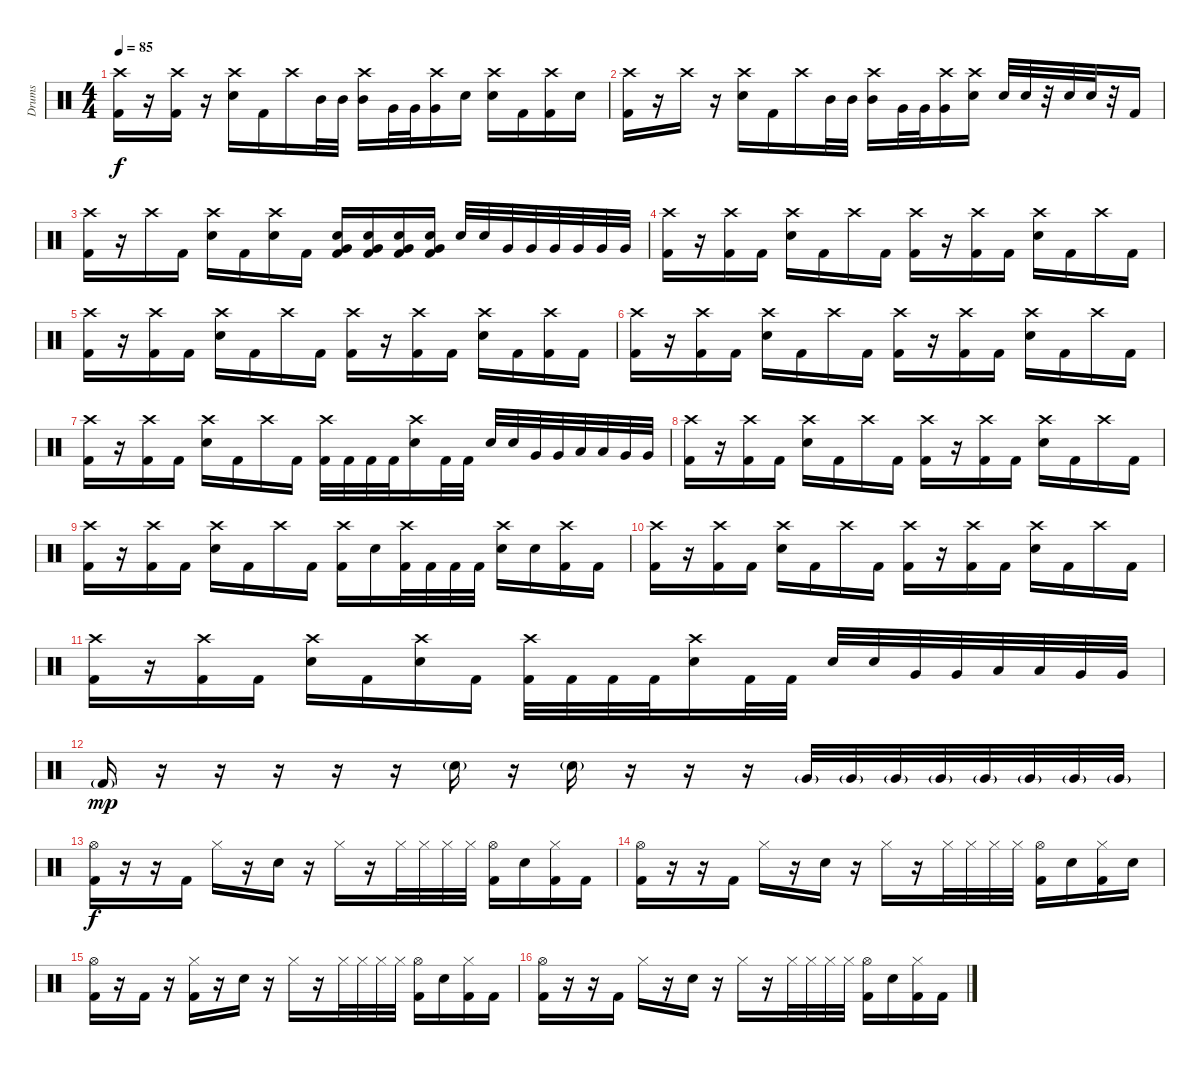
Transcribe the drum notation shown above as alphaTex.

\track ("Drums" "Drums") {instrument percussion}
\staff {score}
\articulation defaults
\ts (4 4)
\tempo 85
\clef neutral
\ks c
("Crash high (hit)" "Kick (hit) 2").16{dy f} r.16 ("Crash high (hit)" "Kick (hit) 2").16 r.16 ("Crash high (hit)" "Snare (hit) 2").16 "Kick (hit) 2".16 "Crash high (hit)".16 "Mid Tom (hit)".32 "Mid Tom (hit)".32 ("Crash high (hit)" "Mid Tom (hit)").16 "Very Low Tom (hit)".32 "Very Low Tom (hit)".32 ("Crash high (hit)" "Very Low Tom (hit)").16 "Snare (hit) 2".16 ("Crash high (hit)" "Snare (hit) 2").16 "Kick (hit) 2".16 ("Crash high (hit)" "Kick (hit) 2").16 "Snare (hit) 2".16 |
("Crash high (hit)" "Kick (hit) 2").16 r.16 "Crash high (hit)".16 r.16 ("Crash high (hit)" "Snare (hit) 2").16 "Kick (hit) 2".16 "Crash high (hit)".16 "Mid Tom (hit)".32 "Mid Tom (hit)".32 ("Crash high (hit)" "Mid Tom (hit)").16 "Very Low Tom (hit)".32 "Very Low Tom (hit)".32 ("Crash high (hit)" "Very Low Tom (hit)").16 ("Crash high (hit)" "Snare (hit) 2").16 "Snare (hit) 2".32 "Snare (hit) 2".32 r.32 "Snare (hit) 2".32 "Snare (hit) 2".32 r.32 "Kick (hit) 2".16 |
("Crash high (hit)" "Kick (hit) 2").16 r.16 "Crash high (hit)".16 "Kick (hit) 2".16 ("Crash high (hit)" "Snare (hit) 2").16 "Kick (hit) 2".16 ("Crash high (hit)" "Snare (hit) 2").16 "Kick (hit) 2".16 ("Snare (hit) 2" "Very Low Tom (hit)" "Kick (hit) 2").16 ("Snare (hit) 2" "Very Low Tom (hit)" "Kick (hit) 2").16 ("Snare (hit) 2" "Very Low Tom (hit)" "Kick (hit) 2").16 ("Snare (hit) 2" "Very Low Tom (hit)" "Kick (hit) 2").16 "Snare (hit) 2".32 "Snare (hit) 2".32 "Very Low Tom (hit)".32 "Very Low Tom (hit)".32 "Very Low Tom (hit)".32 "Very Low Tom (hit)".32 "Very Low Tom (hit)".32 "Very Low Tom (hit)".32 |
("Crash high (hit)" "Kick (hit) 2").16 r.16 ("Crash high (hit)" "Kick (hit) 2").16 "Kick (hit) 2".16 ("Crash high (hit)" "Snare (hit) 2").16 "Kick (hit) 2".16 "Crash high (hit)".16 "Kick (hit) 2".16 ("Crash high (hit)" "Kick (hit) 2").16 r.16 ("Crash high (hit)" "Kick (hit) 2").16 "Kick (hit) 2".16 ("Crash high (hit)" "Snare (hit) 2").16 "Kick (hit) 2".16 "Crash high (hit)".16 "Kick (hit) 2".16 |
("Crash high (hit)" "Kick (hit) 2").16 r.16 ("Crash high (hit)" "Kick (hit) 2").16 "Kick (hit) 2".16 ("Crash high (hit)" "Snare (hit) 2").16 "Kick (hit) 2".16 "Crash high (hit)".16 "Kick (hit) 2".16 ("Crash high (hit)" "Kick (hit) 2").16 r.16 ("Crash high (hit)" "Kick (hit) 2").16 "Kick (hit) 2".16 ("Crash high (hit)" "Snare (hit) 2").16 "Kick (hit) 2".16 ("Crash high (hit)" "Kick (hit) 2").16 "Kick (hit) 2".16 |
("Crash high (hit)" "Kick (hit) 2").16 r.16 ("Crash high (hit)" "Kick (hit) 2").16 "Kick (hit) 2".16 ("Crash high (hit)" "Snare (hit) 2").16 "Kick (hit) 2".16 "Crash high (hit)".16 "Kick (hit) 2".16 ("Crash high (hit)" "Kick (hit) 2").16 r.16 ("Crash high (hit)" "Kick (hit) 2").16 "Kick (hit) 2".16 ("Crash high (hit)" "Snare (hit) 2").16 "Kick (hit) 2".16 "Crash high (hit)".16 "Kick (hit) 2".16 |
("Crash high (hit)" "Kick (hit) 2").16 r.16 ("Crash high (hit)" "Kick (hit) 2").16 "Kick (hit) 2".16 ("Crash high (hit)" "Snare (hit) 2").16 "Kick (hit) 2".16 "Crash high (hit)".16 "Kick (hit) 2".16 ("Crash high (hit)" "Kick (hit) 2").32 "Kick (hit) 2".32 "Kick (hit) 2".32 "Kick (hit) 2".32 ("Crash high (hit)" "Snare (hit) 2").16 "Kick (hit) 2".32 "Kick (hit) 2".32 "Snare (hit) 2".32 "Snare (hit) 2".32 "Very Low Tom (hit)".32 "Very Low Tom (hit)".32 "Low Tom (hit)".32 "Low Tom (hit)".32 "Very Low Tom (hit)".32 "Very Low Tom (hit)".32 |
("Crash high (hit)" "Kick (hit) 2").16 r.16 ("Crash high (hit)" "Kick (hit) 2").16 "Kick (hit) 2".16 ("Crash high (hit)" "Snare (hit) 2").16 "Kick (hit) 2".16 "Crash high (hit)".16 "Kick (hit) 2".16 ("Crash high (hit)" "Kick (hit) 2").16 r.16 ("Crash high (hit)" "Kick (hit) 2").16 "Kick (hit) 2".16 ("Crash high (hit)" "Snare (hit) 2").16 "Kick (hit) 2".16 "Crash high (hit)".16 "Kick (hit) 2".16 |
("Crash high (hit)" "Kick (hit) 2").16 r.16 ("Crash high (hit)" "Kick (hit) 2").16 "Kick (hit) 2".16 ("Crash high (hit)" "Snare (hit) 2").16 "Kick (hit) 2".16 "Crash high (hit)".16 "Kick (hit) 2".16 ("Crash high (hit)" "Kick (hit) 2").16 "Snare (hit) 2".16 ("Crash high (hit)" "Kick (hit) 2").32 "Kick (hit) 2".32 "Kick (hit) 2".32 "Kick (hit) 2".32 ("Crash high (hit)" "Snare (hit) 2").16 "Snare (hit) 2".16 ("Crash high (hit)" "Kick (hit) 2").16 "Kick (hit) 2".16 |
("Crash high (hit)" "Kick (hit) 2").16 r.16 ("Crash high (hit)" "Kick (hit) 2").16 "Kick (hit) 2".16 ("Crash high (hit)" "Snare (hit) 2").16 "Kick (hit) 2".16 "Crash high (hit)".16 "Kick (hit) 2".16 ("Crash high (hit)" "Kick (hit) 2").16 r.16 ("Crash high (hit)" "Kick (hit) 2").16 "Kick (hit) 2".16 ("Crash high (hit)" "Snare (hit) 2").16 "Kick (hit) 2".16 "Crash high (hit)".16 "Kick (hit) 2".16 |
("Crash high (hit)" "Kick (hit) 2").16 r.16 ("Crash high (hit)" "Kick (hit) 2").16 "Kick (hit) 2".16 ("Crash high (hit)" "Snare (hit) 2").16 "Kick (hit) 2".16 ("Crash high (hit)" "Snare (hit) 2").16 "Kick (hit) 2".16 ("Crash high (hit)" "Kick (hit) 2").32 "Kick (hit) 2".32 "Kick (hit) 2".32 "Kick (hit) 2".32 ("Crash high (hit)" "Snare (hit) 2").16 "Kick (hit) 2".32 "Kick (hit) 2".32 "Snare (hit) 2".32 "Snare (hit) 2".32 "Very Low Tom (hit)".32 "Very Low Tom (hit)".32 "Low Tom (hit)".32 "Low Tom (hit)".32 "Very Low Tom (hit)".32 "Very Low Tom (hit)".32 |
"Kick (hit) 2"{g}.16{dy mp} r.16 r.16 r.16 r.16 r.16 "Snare (hit) 2"{g}.16 r.16 "Snare (hit) 2"{g}.16 r.16 r.16 r.16 "Very Low Tom (hit)"{g}.32 "Very Low Tom (hit)"{g}.32 "Very Low Tom (hit)"{g}.32 "Very Low Tom (hit)"{g}.32 "Very Low Tom (hit)"{g}.32 "Very Low Tom (hit)"{g}.32 "Very Low Tom (hit)"{g}.32 "Very Low Tom (hit)"{g}.32 |
("Hi-Hat (open)" "Kick (hit) 2").16{dy f} r.16 r.16 "Kick (hit) 2".16 "Hi-Hat (closed)".16 r.16 "Snare (hit) 2".16 r.16 "Hi-Hat (closed)".16 r.16 "Hi-Hat (closed)".32 "Hi-Hat (closed)".32 "Hi-Hat (closed)".32 "Hi-Hat (closed)".32 ("Hi-Hat (open)" "Kick (hit) 2").16 "Snare (hit) 2".16 ("Hi-Hat (closed)" "Kick (hit) 2").16 "Kick (hit) 2".16 |
("Hi-Hat (open)" "Kick (hit) 2").16 r.16 r.16 "Kick (hit) 2".16 "Hi-Hat (closed)".16 r.16 "Snare (hit) 2".16 r.16 "Hi-Hat (closed)".16 r.16 "Hi-Hat (closed)".32 "Hi-Hat (closed)".32 "Hi-Hat (closed)".32 "Hi-Hat (closed)".32 ("Hi-Hat (open)" "Kick (hit) 2").16 "Snare (hit) 2".16 ("Hi-Hat (closed)" "Kick (hit) 2").16 "Snare (hit) 2".16 |
("Hi-Hat (open)" "Kick (hit) 2").16 r.16 "Kick (hit) 2".16 r.16 ("Hi-Hat (closed)" "Kick (hit) 2").16 r.16 "Snare (hit) 2".16 r.16 "Hi-Hat (closed)".16 r.16 "Hi-Hat (closed)".32 "Hi-Hat (closed)".32 "Hi-Hat (closed)".32 "Hi-Hat (closed)".32 ("Hi-Hat (open)" "Kick (hit) 2").16 "Snare (hit) 2".16 ("Hi-Hat (closed)" "Kick (hit) 2").16 "Kick (hit) 2".16 |
("Hi-Hat (open)" "Kick (hit) 2").16 r.16 r.16 "Kick (hit) 2".16 "Hi-Hat (closed)".16 r.16 "Snare (hit) 2".16 r.16 "Hi-Hat (closed)".16 r.16 "Hi-Hat (closed)".32 "Hi-Hat (closed)".32 "Hi-Hat (closed)".32 "Hi-Hat (closed)".32 ("Hi-Hat (open)" "Kick (hit) 2").16 "Snare (hit) 2".16 ("Hi-Hat (closed)" "Kick (hit) 2").16 "Kick (hit) 2".16
